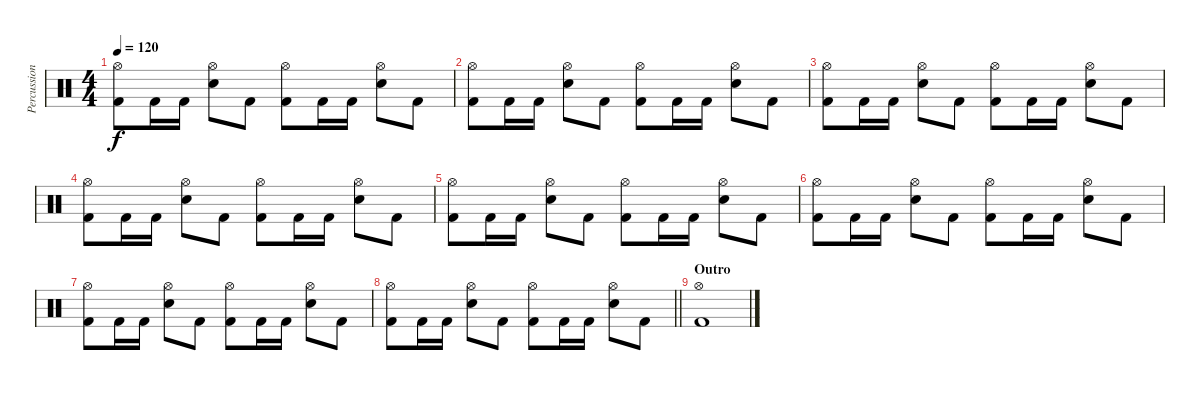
\track ("Percussion" "Percussion") {instrument percussion}
\staff {score}
\articulation defaults
\ts (4 4)
\tempo 120
\clef neutral
\ks c
("Hi-Hat (open)" "Kick (hit) 2").8{dy f} "Kick (hit) 2".16 "Kick (hit) 2".16 ("Hi-Hat (open)" "Electric Snare (hit)").8 "Kick (hit) 2".8 ("Hi-Hat (open)" "Kick (hit) 2").8 "Kick (hit) 2".16 "Kick (hit) 2".16 ("Hi-Hat (open)" "Electric Snare (hit)").8 "Kick (hit) 2".8 |
("Hi-Hat (open)" "Kick (hit) 2").8 "Kick (hit) 2".16 "Kick (hit) 2".16 ("Hi-Hat (open)" "Electric Snare (hit)").8 "Kick (hit) 2".8 ("Hi-Hat (open)" "Kick (hit) 2").8 "Kick (hit) 2".16 "Kick (hit) 2".16 ("Hi-Hat (open)" "Electric Snare (hit)").8 "Kick (hit) 2".8 |
("Hi-Hat (open)" "Kick (hit) 2").8 "Kick (hit) 2".16 "Kick (hit) 2".16 ("Hi-Hat (open)" "Electric Snare (hit)").8 "Kick (hit) 2".8 ("Hi-Hat (open)" "Kick (hit) 2").8 "Kick (hit) 2".16 "Kick (hit) 2".16 ("Hi-Hat (open)" "Electric Snare (hit)").8 "Kick (hit) 2".8 |
("Hi-Hat (open)" "Kick (hit) 2").8 "Kick (hit) 2".16 "Kick (hit) 2".16 ("Hi-Hat (open)" "Electric Snare (hit)").8 "Kick (hit) 2".8 ("Hi-Hat (open)" "Kick (hit) 2").8 "Kick (hit) 2".16 "Kick (hit) 2".16 ("Hi-Hat (open)" "Electric Snare (hit)").8 "Kick (hit) 2".8 |
("Hi-Hat (open)" "Kick (hit) 2").8 "Kick (hit) 2".16 "Kick (hit) 2".16 ("Hi-Hat (open)" "Electric Snare (hit)").8 "Kick (hit) 2".8 ("Hi-Hat (open)" "Kick (hit) 2").8 "Kick (hit) 2".16 "Kick (hit) 2".16 ("Hi-Hat (open)" "Electric Snare (hit)").8 "Kick (hit) 2".8 |
("Hi-Hat (open)" "Kick (hit) 2").8 "Kick (hit) 2".16 "Kick (hit) 2".16 ("Hi-Hat (open)" "Electric Snare (hit)").8 "Kick (hit) 2".8 ("Hi-Hat (open)" "Kick (hit) 2").8 "Kick (hit) 2".16 "Kick (hit) 2".16 ("Hi-Hat (open)" "Electric Snare (hit)").8 "Kick (hit) 2".8 |
("Hi-Hat (open)" "Kick (hit) 2").8 "Kick (hit) 2".16 "Kick (hit) 2".16 ("Hi-Hat (open)" "Electric Snare (hit)").8 "Kick (hit) 2".8 ("Hi-Hat (open)" "Kick (hit) 2").8 "Kick (hit) 2".16 "Kick (hit) 2".16 ("Hi-Hat (open)" "Electric Snare (hit)").8 "Kick (hit) 2".8 |
\barLineRight lightlight
("Hi-Hat (open)" "Kick (hit) 2").8 "Kick (hit) 2".16 "Kick (hit) 2".16 ("Hi-Hat (open)" "Electric Snare (hit)").8 "Kick (hit) 2".8 ("Hi-Hat (open)" "Kick (hit) 2").8 "Kick (hit) 2".16 "Kick (hit) 2".16 ("Hi-Hat (open)" "Electric Snare (hit)").8 "Kick (hit) 2".8 |
\section ("" "Outro")
("Hi-Hat (open)" "Kick (hit) 2").1
